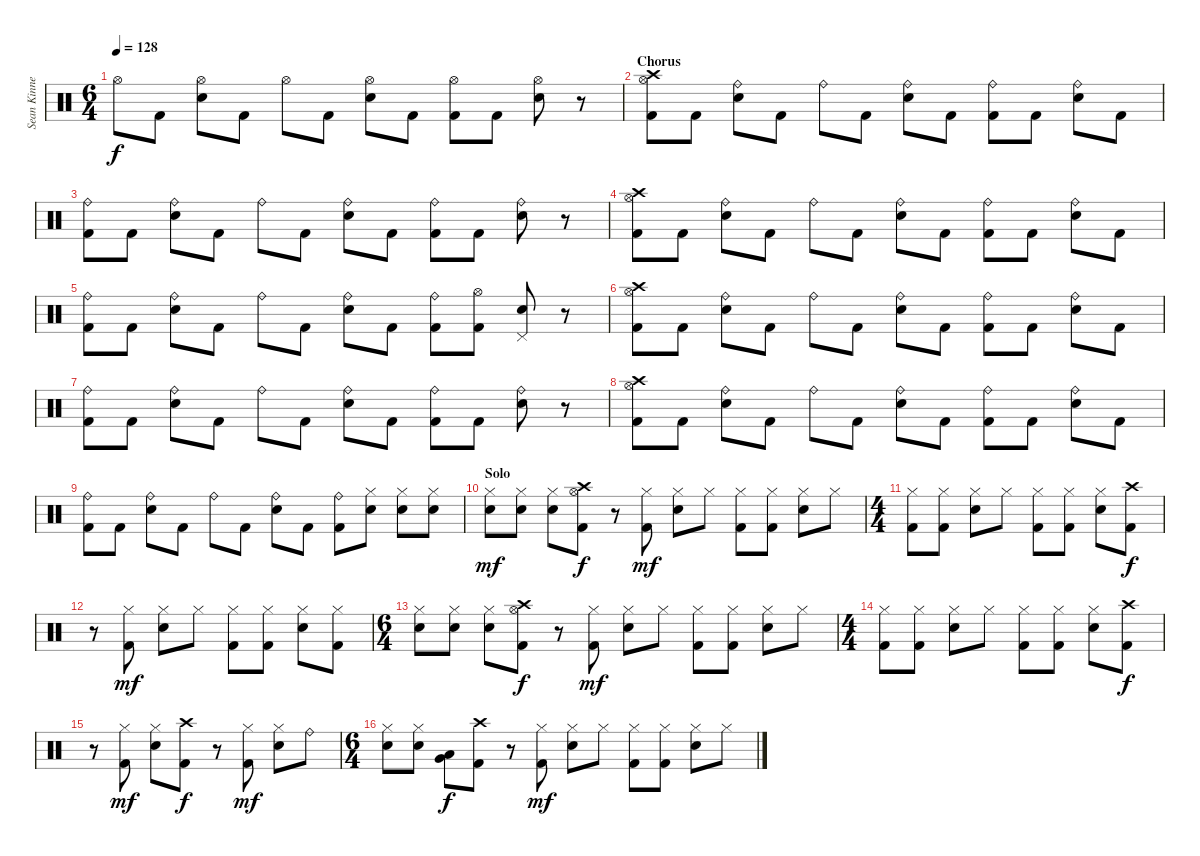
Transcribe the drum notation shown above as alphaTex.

\track ("Sean Kinney (Drums)" "Sean Kinne") {instrument percussion}
\staff {score}
\articulation defaults
\ts (6 4)
\tempo 128
\clef neutral
\ks c "Hi-Hat (open)".8{dy f} "Kick (hit) 2".8
("Electric Snare (hit)" "Hi-Hat (open)").8 "Kick (hit) 2".8 "Hi-Hat (open)".8 "Kick (hit) 2".8 ("Electric Snare (hit)" "Hi-Hat (open)").8 "Kick (hit) 2".8 ("Kick (hit) 2" "Hi-Hat (open)").8 "Kick (hit) 2".8 ("Electric Snare (hit)" "Hi-Hat (open)").8 r.8 |
\section ("" "Chorus")
("Kick (hit) 2" "Crash high (hit)" "Hi-Hat (open)").8 "Kick (hit) 2".8 ("Electric Snare (hit)" "Ride (bell)").8 "Kick (hit) 2".8 "Ride (bell)".8 "Kick (hit) 2".8 ("Electric Snare (hit)" "Ride (bell)").8 "Kick (hit) 2".8 ("Kick (hit) 2" "Ride (bell)").8 "Kick (hit) 2".8 ("Electric Snare (hit)" "Ride (bell)").8 "Kick (hit) 2".8 |
("Kick (hit) 2" "Ride (bell)").8 "Kick (hit) 2".8 ("Electric Snare (hit)" "Ride (bell)").8 "Kick (hit) 2".8 "Ride (bell)".8 "Kick (hit) 2".8 ("Electric Snare (hit)" "Ride (bell)").8 "Kick (hit) 2".8 ("Kick (hit) 2" "Ride (bell)").8 "Kick (hit) 2".8 ("Electric Snare (hit)" "Ride (bell)").8 r.8 |
("Kick (hit) 2" "Crash high (hit)" "Hi-Hat (open)").8 "Kick (hit) 2".8 ("Electric Snare (hit)" "Ride (bell)").8 "Kick (hit) 2".8 "Ride (bell)".8 "Kick (hit) 2".8 ("Electric Snare (hit)" "Ride (bell)").8 "Kick (hit) 2".8 ("Kick (hit) 2" "Ride (bell)").8 "Kick (hit) 2".8 ("Electric Snare (hit)" "Ride (bell)").8 "Kick (hit) 2".8 |
("Kick (hit) 2" "Ride (bell)").8 "Kick (hit) 2".8 ("Electric Snare (hit)" "Ride (bell)").8 "Kick (hit) 2".8 "Ride (bell)".8 "Kick (hit) 2".8 ("Electric Snare (hit)" "Ride (bell)").8 "Kick (hit) 2".8 ("Kick (hit) 2" "Ride (bell)").8 ("Kick (hit) 2" "Hi-Hat (open)").8 ("Electric Snare (hit)" "Pedal Hi-Hat (hit)").8 r.8 |
("Kick (hit) 2" "Crash high (hit)" "Hi-Hat (open)").8 "Kick (hit) 2".8 ("Electric Snare (hit)" "Ride (bell)").8 "Kick (hit) 2".8 "Ride (bell)".8 "Kick (hit) 2".8 ("Electric Snare (hit)" "Ride (bell)").8 "Kick (hit) 2".8 ("Kick (hit) 2" "Ride (bell)").8 "Kick (hit) 2".8 ("Electric Snare (hit)" "Ride (bell)").8 "Kick (hit) 2".8 |
("Kick (hit) 2" "Ride (bell)").8 "Kick (hit) 2".8 ("Electric Snare (hit)" "Ride (bell)").8 "Kick (hit) 2".8 "Ride (bell)".8 "Kick (hit) 2".8 ("Electric Snare (hit)" "Ride (bell)").8 "Kick (hit) 2".8 ("Kick (hit) 2" "Ride (bell)").8 "Kick (hit) 2".8 ("Electric Snare (hit)" "Ride (bell)").8 r.8 |
("Kick (hit) 2" "Crash high (hit)" "Hi-Hat (open)").8 "Kick (hit) 2".8 ("Electric Snare (hit)" "Ride (bell)").8 "Kick (hit) 2".8 "Ride (bell)".8 "Kick (hit) 2".8 ("Electric Snare (hit)" "Ride (bell)").8 "Kick (hit) 2".8 ("Kick (hit) 2" "Ride (bell)").8 "Kick (hit) 2".8 ("Electric Snare (hit)" "Ride (bell)").8 "Kick (hit) 2".8 |
("Kick (hit) 2" "Ride (bell)").8 "Kick (hit) 2".8 ("Electric Snare (hit)" "Ride (bell)").8 "Kick (hit) 2".8 "Ride (bell)".8 "Kick (hit) 2".8 ("Electric Snare (hit)" "Ride (bell)").8 "Kick (hit) 2".8 ("Kick (hit) 2" "Ride (bell)").8 ("Electric Snare (hit)" "Hi-Hat (closed)").8 ("Electric Snare (hit)" "Hi-Hat (closed)").8 ("Electric Snare (hit)" "Hi-Hat (closed)").8 |
\section ("" "Solo")
("Electric Snare (hit)" "Hi-Hat (closed)").8{dy mf} ("Electric Snare (hit)" "Hi-Hat (closed)").8 ("Electric Snare (hit)" "Hi-Hat (closed)").8 ("Kick (hit) 2" "Crash high (hit)" "Hi-Hat (open)").8{dy f} r.8 ("Kick (hit) 2" "Hi-Hat (closed)").8{dy mf} ("Electric Snare (hit)" "Hi-Hat (closed)").8 "Hi-Hat (closed)".8 ("Kick (hit) 2" "Hi-Hat (closed)").8 ("Kick (hit) 2" "Hi-Hat (closed)").8 ("Electric Snare (hit)" "Hi-Hat (closed)").8 "Hi-Hat (closed)".8 |
\ts (4 4)
("Kick (hit) 2" "Hi-Hat (closed)").8 ("Kick (hit) 2" "Hi-Hat (closed)").8 ("Electric Snare (hit)" "Hi-Hat (closed)").8 "Hi-Hat (closed)".8 ("Kick (hit) 2" "Hi-Hat (closed)").8 ("Kick (hit) 2" "Hi-Hat (closed)").8 ("Electric Snare (hit)" "Hi-Hat (closed)").8 ("Kick (hit) 2" "Crash high (hit)").8{dy f} |
r.8 ("Kick (hit) 2" "Hi-Hat (closed)").8{dy mf} ("Electric Snare (hit)" "Hi-Hat (closed)").8 "Hi-Hat (closed)".8 ("Kick (hit) 2" "Hi-Hat (closed)").8 ("Kick (hit) 2" "Hi-Hat (closed)").8 ("Electric Snare (hit)" "Hi-Hat (closed)").8 ("Kick (hit) 2" "Hi-Hat (closed)").8 |
\ts (6 4)
("Electric Snare (hit)" "Hi-Hat (closed)").8 ("Electric Snare (hit)" "Hi-Hat (closed)").8 ("Electric Snare (hit)" "Hi-Hat (closed)").8 ("Kick (hit) 2" "Crash high (hit)" "Hi-Hat (open)").8{dy f} r.8 ("Kick (hit) 2" "Hi-Hat (closed)").8{dy mf} ("Electric Snare (hit)" "Hi-Hat (closed)").8 "Hi-Hat (closed)".8 ("Kick (hit) 2" "Hi-Hat (closed)").8 ("Kick (hit) 2" "Hi-Hat (closed)").8 ("Electric Snare (hit)" "Hi-Hat (closed)").8 "Hi-Hat (closed)".8 |
\ts (4 4)
("Kick (hit) 2" "Hi-Hat (closed)").8 ("Kick (hit) 2" "Hi-Hat (closed)").8 ("Electric Snare (hit)" "Hi-Hat (closed)").8 "Hi-Hat (closed)".8 ("Kick (hit) 2" "Hi-Hat (closed)").8 ("Kick (hit) 2" "Hi-Hat (closed)").8 ("Electric Snare (hit)" "Hi-Hat (closed)").8 ("Kick (hit) 2" "Crash high (hit)").8{dy f} |
r.8 ("Kick (hit) 2" "Hi-Hat (closed)").8{dy mf} ("Electric Snare (hit)" "Hi-Hat (closed)").8 ("Kick (hit) 2" "Crash high (hit)").8{dy f} r.8 ("Kick (hit) 2" "Hi-Hat (closed)").8{dy mf} ("Electric Snare (hit)" "Hi-Hat (closed)").8 "Ride (bell)".8 |
\ts (6 4)
("Electric Snare (hit)" "Hi-Hat (closed)").8 ("Electric Snare (hit)" "Hi-Hat (closed)").8 ("Low Tom (hit)" "Very Low Tom (hit)").8{dy f} ("Kick (hit) 2" "Crash high (hit)").8 r.8 ("Kick (hit) 2" "Hi-Hat (closed)").8{dy mf} ("Electric Snare (hit)" "Hi-Hat (closed)").8 "Hi-Hat (closed)".8 ("Kick (hit) 2" "Hi-Hat (closed)").8 ("Kick (hit) 2" "Hi-Hat (closed)").8 ("Electric Snare (hit)" "Hi-Hat (closed)").8 "Hi-Hat (closed)".8
